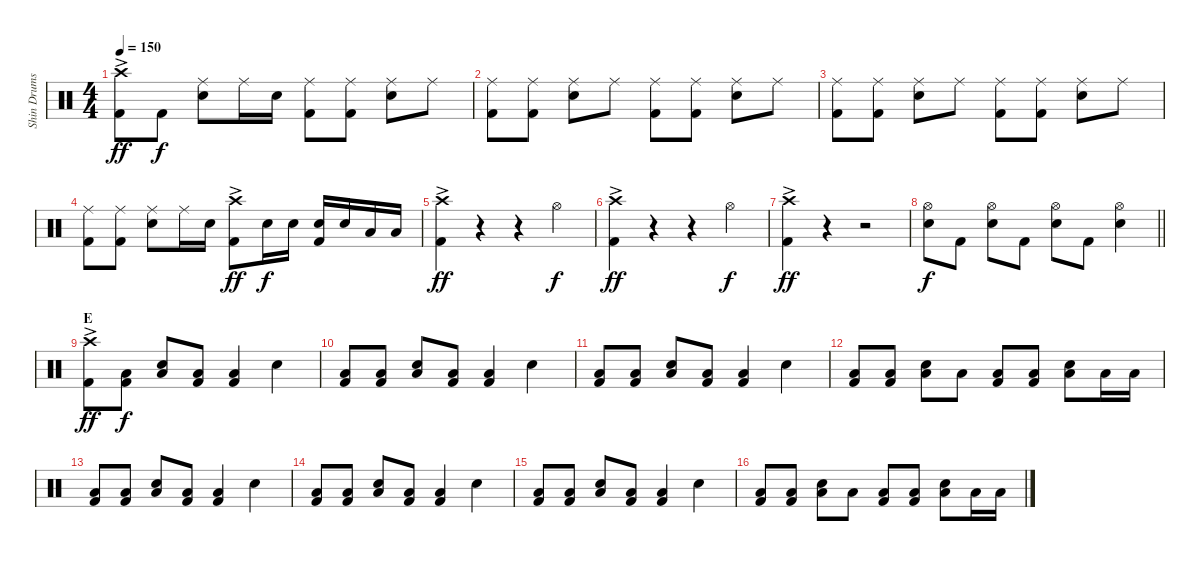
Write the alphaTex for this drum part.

\track ("Shin Drums" "Shin Drums") {instrument percussion}
\staff {score}
\articulation defaults
\ts (4 4)
\tempo 150
\clef neutral
\ks c
("Crash high (hit)"{ac} "Kick (hit) 2").8{dy ff} "Kick (hit) 2".8{dy f} ("Ride (middle)" "Snare (hit) 2").8 "Ride (middle)".16 "Snare (hit) 2".16 ("Ride (middle)" "Kick (hit) 2").8 ("Ride (middle)" "Kick (hit) 2").8 ("Ride (middle)" "Snare (hit) 2").8 "Ride (middle)".8 |
("Ride (middle)" "Kick (hit) 2").8 ("Ride (middle)" "Kick (hit) 2").8 ("Ride (middle)" "Snare (hit) 2").8 "Ride (middle)".8 ("Ride (middle)" "Kick (hit) 2").8 ("Ride (middle)" "Kick (hit) 2").8 ("Ride (middle)" "Snare (hit) 2").8 "Ride (middle)".8 |
("Ride (middle)" "Kick (hit) 2").8 ("Ride (middle)" "Kick (hit) 2").8 ("Ride (middle)" "Snare (hit) 2").8 "Ride (middle)".8 ("Ride (middle)" "Kick (hit) 2").8 ("Ride (middle)" "Kick (hit) 2").8 ("Ride (middle)" "Snare (hit) 2").8 "Ride (middle)".8 |
("Ride (middle)" "Kick (hit) 2").8 ("Ride (middle)" "Kick (hit) 2").8 ("Ride (middle)" "Snare (hit) 2").8 "Ride (middle)".16 "Snare (hit) 2".16 ("Crash high (hit)"{ac} "Kick (hit) 2").8{dy ff} "Snare (hit) 2".16{dy f} "Snare (hit) 2".16 ("Snare (hit) 2" "Kick (hit) 2").16 "Snare (hit) 2".16 "Low Floor Tom (hit)".16 "Low Floor Tom (hit)".16 |
("Crash high (hit)"{ac} "Kick (hit) 2").4{dy ff} r.4 r.4 "Hi-Hat (open)".4{dy f} |
("Crash high (hit)"{ac} "Kick (hit) 2").4{dy ff} r.4 r.4 "Hi-Hat (open)".4{dy f} |
("Crash high (hit)"{ac} "Kick (hit) 2").4{dy ff} r.4 r.2 |
\barLineRight lightlight
("Hi-Hat (open)" "Snare (hit) 2").8{dy f} "Kick (hit) 2".8 ("Hi-Hat (open)" "Snare (hit) 2").8 "Kick (hit) 2".8 ("Hi-Hat (open)" "Snare (hit) 2").8 "Kick (hit) 2".8 ("Hi-Hat (open)" "Snare (hit) 2").4 |
\section ("" "E")
("Crash high (hit)"{ac} "Kick (hit) 2").8{dy ff} ("Low Floor Tom (hit)" "Kick (hit) 2").8{dy f} ("Snare (hit) 2" "Low Floor Tom (hit)").8 ("Low Floor Tom (hit)" "Kick (hit) 2").8 ("Low Floor Tom (hit)" "Kick (hit) 2").4 "Snare (hit) 2".4 |
("Low Floor Tom (hit)" "Kick (hit) 2").8 ("Low Floor Tom (hit)" "Kick (hit) 2").8 ("Snare (hit) 2" "Low Floor Tom (hit)").8 ("Low Floor Tom (hit)" "Kick (hit) 2").8 ("Low Floor Tom (hit)" "Kick (hit) 2").4 "Snare (hit) 2".4 |
("Low Floor Tom (hit)" "Kick (hit) 2").8 ("Low Floor Tom (hit)" "Kick (hit) 2").8 ("Snare (hit) 2" "Low Floor Tom (hit)").8 ("Low Floor Tom (hit)" "Kick (hit) 2").8 ("Low Floor Tom (hit)" "Kick (hit) 2").4 "Snare (hit) 2".4 |
("Low Floor Tom (hit)" "Kick (hit) 2").8 ("Low Floor Tom (hit)" "Kick (hit) 2").8 ("Snare (hit) 2" "Low Floor Tom (hit)").8 "Low Floor Tom (hit)".8 ("Low Floor Tom (hit)" "Kick (hit) 2").8 ("Low Floor Tom (hit)" "Kick (hit) 2").8 ("Snare (hit) 2" "Low Floor Tom (hit)").8 "Low Floor Tom (hit)".16 "Low Floor Tom (hit)".16 |
("Low Floor Tom (hit)" "Kick (hit) 2").8 ("Low Floor Tom (hit)" "Kick (hit) 2").8 ("Snare (hit) 2" "Low Floor Tom (hit)").8 ("Low Floor Tom (hit)" "Kick (hit) 2").8 ("Low Floor Tom (hit)" "Kick (hit) 2").4 "Snare (hit) 2".4 |
("Low Floor Tom (hit)" "Kick (hit) 2").8 ("Low Floor Tom (hit)" "Kick (hit) 2").8 ("Snare (hit) 2" "Low Floor Tom (hit)").8 ("Low Floor Tom (hit)" "Kick (hit) 2").8 ("Low Floor Tom (hit)" "Kick (hit) 2").4 "Snare (hit) 2".4 |
("Low Floor Tom (hit)" "Kick (hit) 2").8 ("Low Floor Tom (hit)" "Kick (hit) 2").8 ("Snare (hit) 2" "Low Floor Tom (hit)").8 ("Low Floor Tom (hit)" "Kick (hit) 2").8 ("Low Floor Tom (hit)" "Kick (hit) 2").4 "Snare (hit) 2".4 |
("Low Floor Tom (hit)" "Kick (hit) 2").8 ("Low Floor Tom (hit)" "Kick (hit) 2").8 ("Snare (hit) 2" "Low Floor Tom (hit)").8 "Low Floor Tom (hit)".8 ("Low Floor Tom (hit)" "Kick (hit) 2").8 ("Low Floor Tom (hit)" "Kick (hit) 2").8 ("Snare (hit) 2" "Low Floor Tom (hit)").8 "Low Floor Tom (hit)".16 "Low Floor Tom (hit)".16
